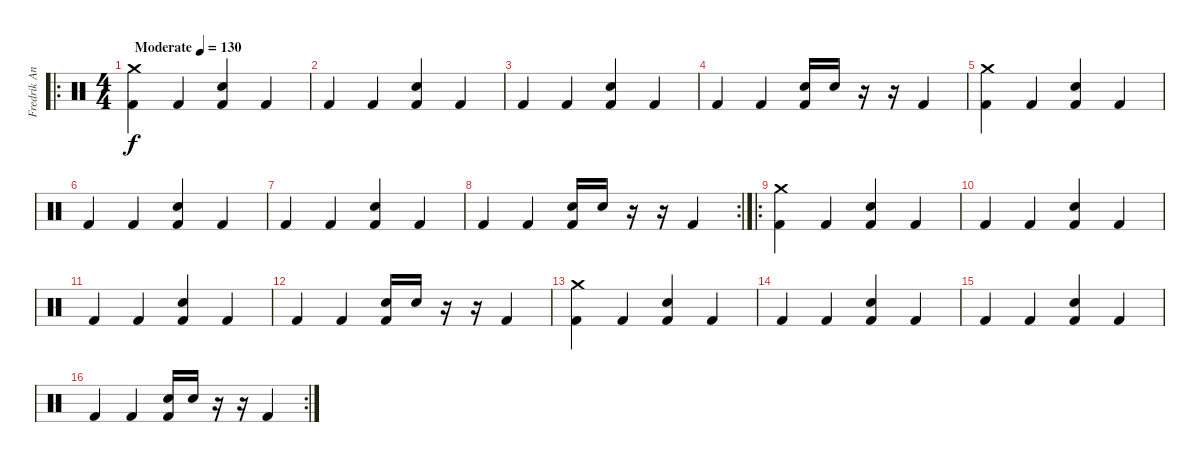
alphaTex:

\track ("Fredrik Andersson" "Fredrik An") {instrument percussion}
\staff {score}
\articulation defaults
\ro
\ts (4 4)
\tempo (130 "Moderate")
\clef neutral
\ks c
("Crash medium (hit)" "Kick (hit) 2").4{dy f} "Kick (hit) 2".4 ("Electric Snare (hit)" "Kick (hit) 2").4 "Kick (hit) 2".4 |
"Kick (hit) 2".4 "Kick (hit) 2".4 ("Electric Snare (hit)" "Kick (hit) 2").4 "Kick (hit) 2".4 |
"Kick (hit) 2".4 "Kick (hit) 2".4 ("Electric Snare (hit)" "Kick (hit) 2").4 "Kick (hit) 2".4 |
"Kick (hit) 2".4 "Kick (hit) 2".4 ("Electric Snare (hit)" "Kick (hit) 2").16 "Electric Snare (hit)".16 r.16 r.16 "Kick (hit) 2".4 |
("Crash medium (hit)" "Kick (hit) 2").4 "Kick (hit) 2".4 ("Electric Snare (hit)" "Kick (hit) 2").4 "Kick (hit) 2".4 |
"Kick (hit) 2".4 "Kick (hit) 2".4 ("Electric Snare (hit)" "Kick (hit) 2").4 "Kick (hit) 2".4 |
"Kick (hit) 2".4 "Kick (hit) 2".4 ("Electric Snare (hit)" "Kick (hit) 2").4 "Kick (hit) 2".4 |
\rc 2 "Kick (hit) 2".4 "Kick (hit) 2".4
("Electric Snare (hit)" "Kick (hit) 2").16 "Electric Snare (hit)".16 r.16 r.16 "Kick (hit) 2".4 |
\ro
("Crash medium (hit)" "Kick (hit) 2").4 "Kick (hit) 2".4 ("Electric Snare (hit)" "Kick (hit) 2").4 "Kick (hit) 2".4 |
"Kick (hit) 2".4 "Kick (hit) 2".4 ("Electric Snare (hit)" "Kick (hit) 2").4 "Kick (hit) 2".4 |
"Kick (hit) 2".4 "Kick (hit) 2".4 ("Electric Snare (hit)" "Kick (hit) 2").4 "Kick (hit) 2".4 |
"Kick (hit) 2".4 "Kick (hit) 2".4 ("Electric Snare (hit)" "Kick (hit) 2").16 "Electric Snare (hit)".16 r.16 r.16 "Kick (hit) 2".4 |
("Crash medium (hit)" "Kick (hit) 2").4 "Kick (hit) 2".4 ("Electric Snare (hit)" "Kick (hit) 2").4 "Kick (hit) 2".4 |
"Kick (hit) 2".4 "Kick (hit) 2".4 ("Electric Snare (hit)" "Kick (hit) 2").4 "Kick (hit) 2".4 |
"Kick (hit) 2".4 "Kick (hit) 2".4 ("Electric Snare (hit)" "Kick (hit) 2").4 "Kick (hit) 2".4 |
\rc 2 "Kick (hit) 2".4 "Kick (hit) 2".4
("Electric Snare (hit)" "Kick (hit) 2").16 "Electric Snare (hit)".16 r.16 r.16 "Kick (hit) 2".4
